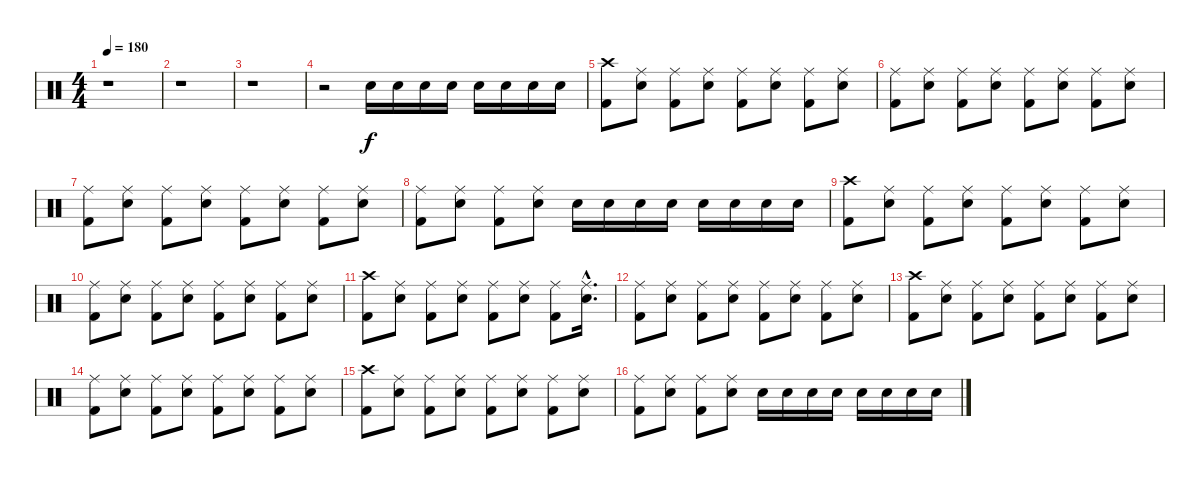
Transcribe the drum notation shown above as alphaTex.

\track "" {instrument percussion}
\staff {score}
\articulation defaults
\ts (4 4)
\tempo 180
\clef neutral
\ks c
r.1{dy f} |
r.1 |
r.1 |
r.2 "Snare (hit) 2".16 "Snare (hit) 2".16 "Snare (hit) 2".16 "Snare (hit) 2".16 "Snare (hit) 2".16 "Snare (hit) 2".16 "Snare (hit) 2".16 "Snare (hit) 2".16 |
("Crash high (hit)" "Kick (hit) 2").8 ("Snare (hit) 2" "Ride (middle)").8 ("Kick (hit) 2" "Ride (middle)").8 ("Ride (middle)" "Snare (hit) 2").8 ("Ride (middle)" "Kick (hit) 2").8 ("Ride (middle)" "Snare (hit) 2").8 ("Kick (hit) 2" "Ride (middle)").8 ("Ride (middle)" "Snare (hit) 2").8 |
("Ride (middle)" "Kick (hit) 2").8 ("Ride (middle)" "Snare (hit) 2").8 ("Kick (hit) 2" "Ride (middle)").8 ("Snare (hit) 2" "Ride (middle)").8 ("Ride (middle)" "Kick (hit) 2").8 ("Ride (middle)" "Snare (hit) 2").8 ("Ride (middle)" "Kick (hit) 2").8 ("Ride (middle)" "Snare (hit) 2").8 |
("Kick (hit) 2" "Ride (middle)").8 ("Ride (middle)" "Snare (hit) 2").8 ("Ride (middle)" "Kick (hit) 2").8 ("Ride (middle)" "Snare (hit) 2").8 ("Kick (hit) 2" "Ride (middle)").8 ("Snare (hit) 2" "Ride (middle)").8 ("Kick (hit) 2" "Ride (middle)").8 ("Snare (hit) 2" "Ride (middle)").8 |
("Kick (hit) 2" "Ride (middle)").8 ("Snare (hit) 2" "Ride (middle)").8 ("Ride (middle)" "Kick (hit) 2").8 ("Ride (middle)" "Snare (hit) 2").8 "Snare (hit) 2".16 "Snare (hit) 2".16 "Snare (hit) 2".16 "Snare (hit) 2".16 "Snare (hit) 2".16 "Snare (hit) 2".16 "Snare (hit) 2".16 "Snare (hit) 2".16 |
("Crash high (hit)" "Kick (hit) 2").8 ("Snare (hit) 2" "Ride (middle)").8 ("Ride (middle)" "Kick (hit) 2").8 ("Ride (middle)" "Snare (hit) 2").8 ("Ride (middle)" "Kick (hit) 2").8 ("Snare (hit) 2" "Ride (middle)").8 ("Kick (hit) 2" "Ride (middle)").8 ("Snare (hit) 2" "Ride (middle)").8 |
("Ride (middle)" "Kick (hit) 2").8 ("Snare (hit) 2" "Ride (middle)").8 ("Kick (hit) 2" "Ride (middle)").8 ("Ride (middle)" "Snare (hit) 2").8 ("Ride (middle)" "Kick (hit) 2").8 ("Ride (middle)" "Snare (hit) 2").8 ("Kick (hit) 2" "Ride (middle)").8 ("Ride (middle)" "Snare (hit) 2").8 |
("Crash high (hit)" "Kick (hit) 2").8 ("Ride (middle)" "Snare (hit) 2").8 ("Ride (middle)" "Kick (hit) 2").8 ("Ride (middle)" "Snare (hit) 2").8 ("Kick (hit) 2" "Ride (middle)").8 ("Snare (hit) 2" "Ride (middle)").8 ("Kick (hit) 2" "Ride (middle)").8 ("Ride (middle)"{hac} "Snare (hit) 2"{hac}).16{d} |
("Kick (hit) 2" "Ride (middle)").8 ("Ride (middle)" "Snare (hit) 2").8 ("Ride (middle)" "Kick (hit) 2").8 ("Ride (middle)" "Snare (hit) 2").8 ("Ride (middle)" "Kick (hit) 2").8 ("Ride (middle)" "Snare (hit) 2").8 ("Ride (middle)" "Kick (hit) 2").8 ("Ride (middle)" "Snare (hit) 2").8 |
("Crash high (hit)" "Kick (hit) 2").8 ("Ride (middle)" "Snare (hit) 2").8 ("Kick (hit) 2" "Ride (middle)").8 ("Snare (hit) 2" "Ride (middle)").8 ("Kick (hit) 2" "Ride (middle)").8 ("Ride (middle)" "Snare (hit) 2").8 ("Kick (hit) 2" "Ride (middle)").8 ("Ride (middle)" "Snare (hit) 2").8 |
("Kick (hit) 2" "Ride (middle)").8 ("Ride (middle)" "Snare (hit) 2").8 ("Ride (middle)" "Kick (hit) 2").8 ("Snare (hit) 2" "Ride (middle)").8 ("Ride (middle)" "Kick (hit) 2").8 ("Ride (middle)" "Snare (hit) 2").8 ("Ride (middle)" "Kick (hit) 2").8 ("Snare (hit) 2" "Ride (middle)").8 |
("Kick (hit) 2" "Crash high (hit)").8 ("Snare (hit) 2" "Ride (middle)").8 ("Kick (hit) 2" "Ride (middle)").8 ("Snare (hit) 2" "Ride (middle)").8 ("Kick (hit) 2" "Ride (middle)").8 ("Ride (middle)" "Snare (hit) 2").8 ("Ride (middle)" "Kick (hit) 2").8 ("Ride (middle)" "Snare (hit) 2").8 |
("Ride (middle)" "Kick (hit) 2").8 ("Snare (hit) 2" "Ride (middle)").8 ("Ride (middle)" "Kick (hit) 2").8 ("Snare (hit) 2" "Ride (middle)").8 "Snare (hit) 2".16 "Snare (hit) 2".16 "Snare (hit) 2".16 "Snare (hit) 2".16 "Snare (hit) 2".16 "Snare (hit) 2".16 "Snare (hit) 2".16 "Snare (hit) 2".16
